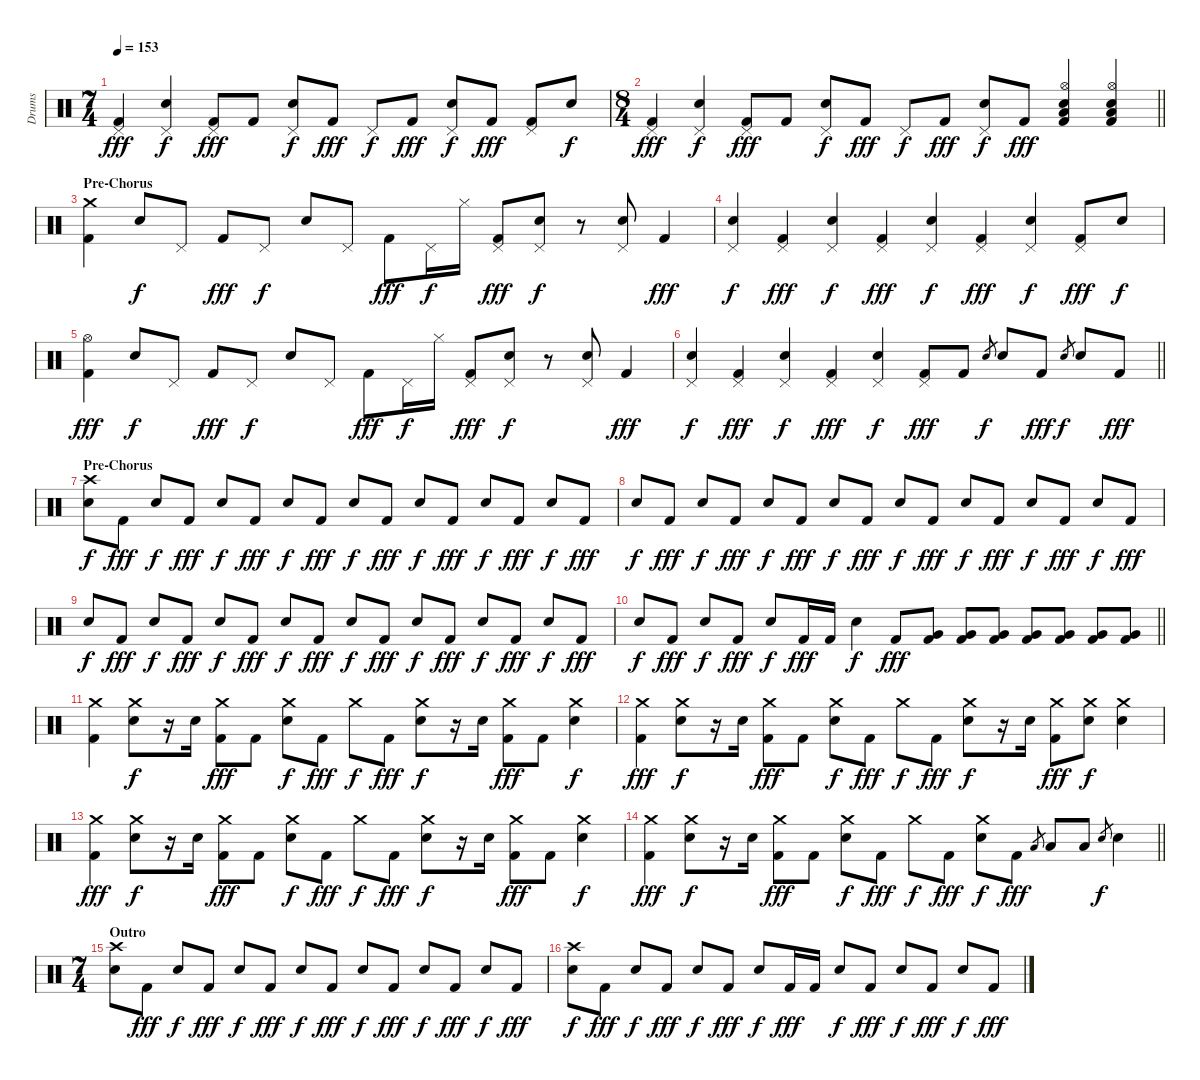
\track ("Drums" "Drums") {instrument percussion}
\staff {score}
\articulation defaults
\ts (7 4)
\tempo 153
\clef neutral
\ks c
("Pedal Hi-Hat (hit)" "Kick (hit) 2").4{dy fff} ("Pedal Hi-Hat (hit)" "Electric Snare (hit)").4{dy f} ("Pedal Hi-Hat (hit)" "Kick (hit) 2").8{dy fff} "Kick (hit) 2".8 ("Pedal Hi-Hat (hit)" "Electric Snare (hit)").8{dy f} "Kick (hit) 2".8{dy fff} "Pedal Hi-Hat (hit)".8{dy f} "Kick (hit) 2".8{dy fff} ("Pedal Hi-Hat (hit)" "Electric Snare (hit)").8{dy f} "Kick (hit) 2".8{dy fff} ("Pedal Hi-Hat (hit)" "Kick (hit) 2").8 "Electric Snare (hit)".8{dy f} |
\ts (8 4)
\barLineRight lightlight
("Pedal Hi-Hat (hit)" "Kick (hit) 2").4{dy fff} ("Pedal Hi-Hat (hit)" "Electric Snare (hit)").4{dy f} ("Pedal Hi-Hat (hit)" "Kick (hit) 2").8{dy fff} "Kick (hit) 2".8 ("Pedal Hi-Hat (hit)" "Electric Snare (hit)").8{dy f} "Kick (hit) 2".8{dy fff} "Pedal Hi-Hat (hit)".8{dy f} "Kick (hit) 2".8{dy fff} ("Pedal Hi-Hat (hit)" "Electric Snare (hit)").8{dy f} "Kick (hit) 2".8{dy fff} ("Hi-Hat (open)" "Electric Snare (hit)" "Low Floor Tom (hit)" "Kick (hit) 2").4 ("Hi-Hat (open)" "Electric Snare (hit)" "Low Floor Tom (hit)" "Kick (hit) 2").4 |
\section ("" "Pre-Chorus")
("Crash medium (hit)" "Kick (hit) 2").4 "Electric Snare (hit)".8{dy f} "Pedal Hi-Hat (hit)".8 "Kick (hit) 2".8{dy fff} "Pedal Hi-Hat (hit)".8{dy f} "Electric Snare (hit)".8 "Pedal Hi-Hat (hit)".8 "Kick (hit) 2".8{dy fff} "Pedal Hi-Hat (hit)".16{dy f} "Hi-Hat (closed)".16 ("Pedal Hi-Hat (hit)" "Kick (hit) 2").8{dy fff} ("Pedal Hi-Hat (hit)" "Electric Snare (hit)").8{dy f} r.8 ("Pedal Hi-Hat (hit)" "Electric Snare (hit)").8 "Kick (hit) 2".4{dy fff} |
("Pedal Hi-Hat (hit)" "Electric Snare (hit)").4{dy f} ("Pedal Hi-Hat (hit)" "Kick (hit) 2").4{dy fff} ("Pedal Hi-Hat (hit)" "Electric Snare (hit)").4{dy f} ("Pedal Hi-Hat (hit)" "Kick (hit) 2").4{dy fff} ("Pedal Hi-Hat (hit)" "Electric Snare (hit)").4{dy f} ("Pedal Hi-Hat (hit)" "Kick (hit) 2").4{dy fff} ("Pedal Hi-Hat (hit)" "Electric Snare (hit)").4{dy f} ("Pedal Hi-Hat (hit)" "Kick (hit) 2").8{dy fff} "Electric Snare (hit)".8{dy f} |
("Hi-Hat (open)" "Kick (hit) 2").4{dy fff} "Electric Snare (hit)".8{dy f} "Pedal Hi-Hat (hit)".8 "Kick (hit) 2".8{dy fff} "Pedal Hi-Hat (hit)".8{dy f} "Electric Snare (hit)".8 "Pedal Hi-Hat (hit)".8 "Kick (hit) 2".8{dy fff} "Pedal Hi-Hat (hit)".16{dy f} "Hi-Hat (closed)".16 ("Pedal Hi-Hat (hit)" "Kick (hit) 2").8{dy fff} ("Pedal Hi-Hat (hit)" "Electric Snare (hit)").8{dy f} r.8 ("Pedal Hi-Hat (hit)" "Electric Snare (hit)").8 "Kick (hit) 2".4{dy fff} |
\barLineRight lightlight
("Pedal Hi-Hat (hit)" "Electric Snare (hit)").4{dy f} ("Pedal Hi-Hat (hit)" "Kick (hit) 2").4{dy fff} ("Pedal Hi-Hat (hit)" "Electric Snare (hit)").4{dy f} ("Pedal Hi-Hat (hit)" "Kick (hit) 2").4{dy fff} ("Pedal Hi-Hat (hit)" "Electric Snare (hit)").4{dy f} ("Pedal Hi-Hat (hit)" "Kick (hit) 2").8{dy fff} "Kick (hit) 2".8 "Electric Snare (hit)".8{gr dy f} "Electric Snare (hit)".8 "Kick (hit) 2".8{dy fff} "Electric Snare (hit)".8{gr dy f} "Electric Snare (hit)".8 "Kick (hit) 2".8{dy fff} |
\section ("" "Pre-Chorus")
("Crash high (hit)" "Electric Snare (hit)").8{dy f} "Kick (hit) 2".8{dy fff} "Electric Snare (hit)".8{dy f} "Kick (hit) 2".8{dy fff} "Electric Snare (hit)".8{dy f} "Kick (hit) 2".8{dy fff} "Electric Snare (hit)".8{dy f} "Kick (hit) 2".8{dy fff} "Electric Snare (hit)".8{dy f} "Kick (hit) 2".8{dy fff} "Electric Snare (hit)".8{dy f} "Kick (hit) 2".8{dy fff} "Electric Snare (hit)".8{dy f} "Kick (hit) 2".8{dy fff} "Electric Snare (hit)".8{dy f} "Kick (hit) 2".8{dy fff} |
"Electric Snare (hit)".8{dy f} "Kick (hit) 2".8{dy fff} "Electric Snare (hit)".8{dy f} "Kick (hit) 2".8{dy fff} "Electric Snare (hit)".8{dy f} "Kick (hit) 2".8{dy fff} "Electric Snare (hit)".8{dy f} "Kick (hit) 2".8{dy fff} "Electric Snare (hit)".8{dy f} "Kick (hit) 2".8{dy fff} "Electric Snare (hit)".8{dy f} "Kick (hit) 2".8{dy fff} "Electric Snare (hit)".8{dy f} "Kick (hit) 2".8{dy fff} "Electric Snare (hit)".8{dy f} "Kick (hit) 2".8{dy fff} |
"Electric Snare (hit)".8{dy f} "Kick (hit) 2".8{dy fff} "Electric Snare (hit)".8{dy f} "Kick (hit) 2".8{dy fff} "Electric Snare (hit)".8{dy f} "Kick (hit) 2".8{dy fff} "Electric Snare (hit)".8{dy f} "Kick (hit) 2".8{dy fff} "Electric Snare (hit)".8{dy f} "Kick (hit) 2".8{dy fff} "Electric Snare (hit)".8{dy f} "Kick (hit) 2".8{dy fff} "Electric Snare (hit)".8{dy f} "Kick (hit) 2".8{dy fff} "Electric Snare (hit)".8{dy f} "Kick (hit) 2".8{dy fff} |
\barLineRight lightlight "Electric Snare (hit)".8{dy f} "Kick (hit) 2".8{dy fff} "Electric Snare (hit)".8{dy f} "Kick (hit) 2".8{dy fff} "Electric Snare (hit)".8{dy f} "Kick (hit) 2".16{dy fff} "Kick (hit) 2".16 "Electric Snare (hit)".4{dy f} "Kick (hit) 2".8{dy fff}
("Very Low Tom (hit)" "Kick (hit) 2").8 ("Very Low Tom (hit)" "Kick (hit) 2").8 ("Very Low Tom (hit)" "Kick (hit) 2").8 ("Very Low Tom (hit)" "Kick (hit) 2").8 ("Very Low Tom (hit)" "Kick (hit) 2").8 ("Very Low Tom (hit)" "Kick (hit) 2").8 ("Very Low Tom (hit)" "Kick (hit) 2").8 |
("Crash medium (hit)" "Kick (hit) 2").4 ("Crash medium (hit)" "Electric Snare (hit)").8{dy f} r.16 "Electric Snare (hit)".16 ("Crash medium (hit)" "Kick (hit) 2").8{dy fff} "Kick (hit) 2".8 ("Crash medium (hit)" "Electric Snare (hit)").8{dy f} "Kick (hit) 2".8{dy fff} "Crash medium (hit)".8{dy f} "Kick (hit) 2".8{dy fff} ("Crash medium (hit)" "Electric Snare (hit)").8{dy f} r.16 "Electric Snare (hit)".16 ("Crash medium (hit)" "Kick (hit) 2").8{dy fff} "Kick (hit) 2".8 ("Crash medium (hit)" "Electric Snare (hit)").4{dy f} |
("Crash medium (hit)" "Kick (hit) 2").4{dy fff} ("Crash medium (hit)" "Electric Snare (hit)").8{dy f} r.16 "Electric Snare (hit)".16 ("Crash medium (hit)" "Kick (hit) 2").8{dy fff} "Kick (hit) 2".8 ("Crash medium (hit)" "Electric Snare (hit)").8{dy f} "Kick (hit) 2".8{dy fff} "Crash medium (hit)".8{dy f} "Kick (hit) 2".8{dy fff} ("Crash medium (hit)" "Electric Snare (hit)").8{dy f} r.16 "Electric Snare (hit)".16 ("Crash medium (hit)" "Kick (hit) 2").8{dy fff} ("Crash medium (hit)" "Electric Snare (hit)").8{dy f} ("Crash medium (hit)" "Electric Snare (hit)").4 |
("Crash medium (hit)" "Kick (hit) 2").4{dy fff} ("Crash medium (hit)" "Electric Snare (hit)").8{dy f} r.16 "Electric Snare (hit)".16 ("Crash medium (hit)" "Kick (hit) 2").8{dy fff} "Kick (hit) 2".8 ("Crash medium (hit)" "Electric Snare (hit)").8{dy f} "Kick (hit) 2".8{dy fff} "Crash medium (hit)".8{dy f} "Kick (hit) 2".8{dy fff} ("Crash medium (hit)" "Electric Snare (hit)").8{dy f} r.16 "Electric Snare (hit)".16 ("Crash medium (hit)" "Kick (hit) 2").8{dy fff} "Kick (hit) 2".8 ("Crash medium (hit)" "Electric Snare (hit)").4{dy f} |
\barLineRight lightlight
("Crash medium (hit)" "Kick (hit) 2").4{dy fff} ("Crash medium (hit)" "Electric Snare (hit)").8{dy f} r.16 "Electric Snare (hit)".16 ("Crash medium (hit)" "Kick (hit) 2").8{dy fff} "Kick (hit) 2".8 ("Crash medium (hit)" "Electric Snare (hit)").8{dy f} "Kick (hit) 2".8{dy fff} "Crash medium (hit)".8{dy f} "Kick (hit) 2".8{dy fff} ("Crash medium (hit)" "Electric Snare (hit)").8{dy f} "Kick (hit) 2".8{dy fff} "Low Floor Tom (hit)".8{gr} "Low Floor Tom (hit)".8 "Low Floor Tom (hit)".8 "Electric Snare (hit)".8{gr dy f} "Electric Snare (hit)".4 |
\ts (7 4)
\section ("" "Outro")
("Crash high (hit)" "Electric Snare (hit)").8 "Kick (hit) 2".8{dy fff} "Electric Snare (hit)".8{dy f} "Kick (hit) 2".8{dy fff} "Electric Snare (hit)".8{dy f} "Kick (hit) 2".8{dy fff} "Electric Snare (hit)".8{dy f} "Kick (hit) 2".8{dy fff} "Electric Snare (hit)".8{dy f} "Kick (hit) 2".8{dy fff} "Electric Snare (hit)".8{dy f} "Kick (hit) 2".8{dy fff} "Electric Snare (hit)".8{dy f} "Kick (hit) 2".8{dy fff} |
("Crash high (hit)" "Electric Snare (hit)").8{dy f} "Kick (hit) 2".8{dy fff} "Electric Snare (hit)".8{dy f} "Kick (hit) 2".8{dy fff} "Electric Snare (hit)".8{dy f} "Kick (hit) 2".8{dy fff} "Electric Snare (hit)".8{dy f} "Kick (hit) 2".16{dy fff} "Kick (hit) 2".16 "Electric Snare (hit)".8{dy f} "Kick (hit) 2".8{dy fff} "Electric Snare (hit)".8{dy f} "Kick (hit) 2".8{dy fff} "Electric Snare (hit)".8{dy f} "Kick (hit) 2".8{dy fff}
